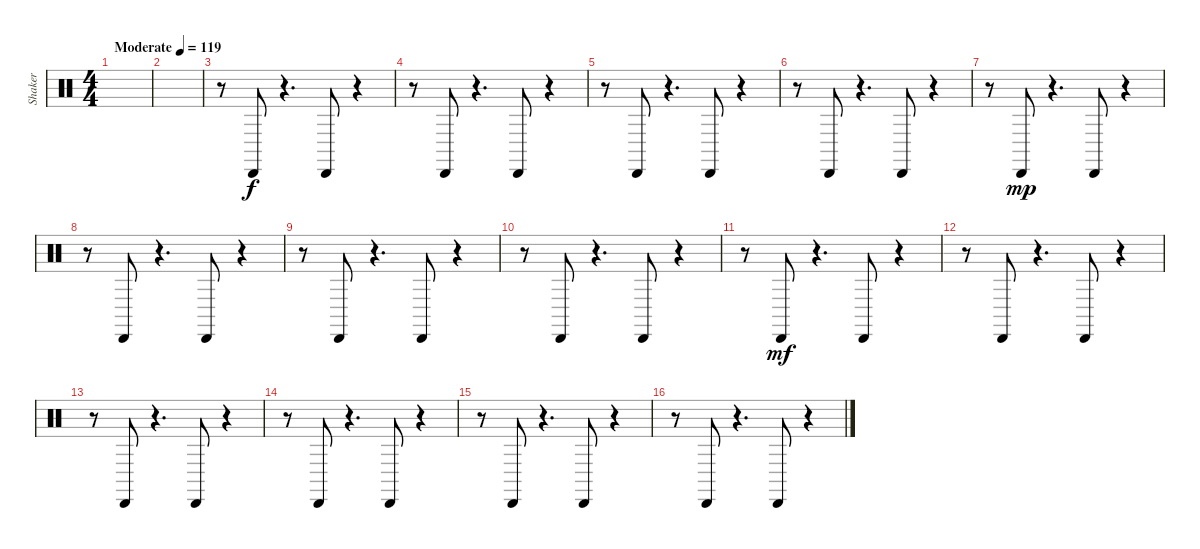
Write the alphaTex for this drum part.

\track ("Shaker" "Shaker") {instrument percussion}
\staff {score}
\articulation defaults
\ts (4 4)
\tempo (119 "Moderate")
\clef neutral
\ks c
|
|
r.8 "Cabasa (hit)".8 r.4{d} "Cabasa (hit)".8 r.4 |
r.8 "Cabasa (hit)".8 r.4{d} "Cabasa (hit)".8 r.4 |
r.8 "Cabasa (hit)".8 r.4{d} "Cabasa (hit)".8 r.4 |
r.8 "Cabasa (hit)".8 r.4{d} "Cabasa (hit)".8 r.4 |
r.8 "Cabasa (hit)".8{dy mp} r.4{d} "Cabasa (hit)".8 r.4 |
r.8 "Cabasa (hit)".8 r.4{d} "Cabasa (hit)".8 r.4 |
r.8 "Cabasa (hit)".8 r.4{d} "Cabasa (hit)".8 r.4 |
r.8 "Cabasa (hit)".8 r.4{d} "Cabasa (hit)".8 r.4 |
r.8 "Cabasa (hit)".8{dy mf} r.4{d} "Cabasa (hit)".8 r.4 |
r.8 "Cabasa (hit)".8 r.4{d} "Cabasa (hit)".8 r.4 |
r.8 "Cabasa (hit)".8 r.4{d} "Cabasa (hit)".8 r.4 |
r.8 "Cabasa (hit)".8 r.4{d} "Cabasa (hit)".8 r.4 |
r.8 "Cabasa (hit)".8 r.4{d} "Cabasa (hit)".8 r.4 |
r.8 "Cabasa (hit)".8 r.4{d} "Cabasa (hit)".8 r.4
